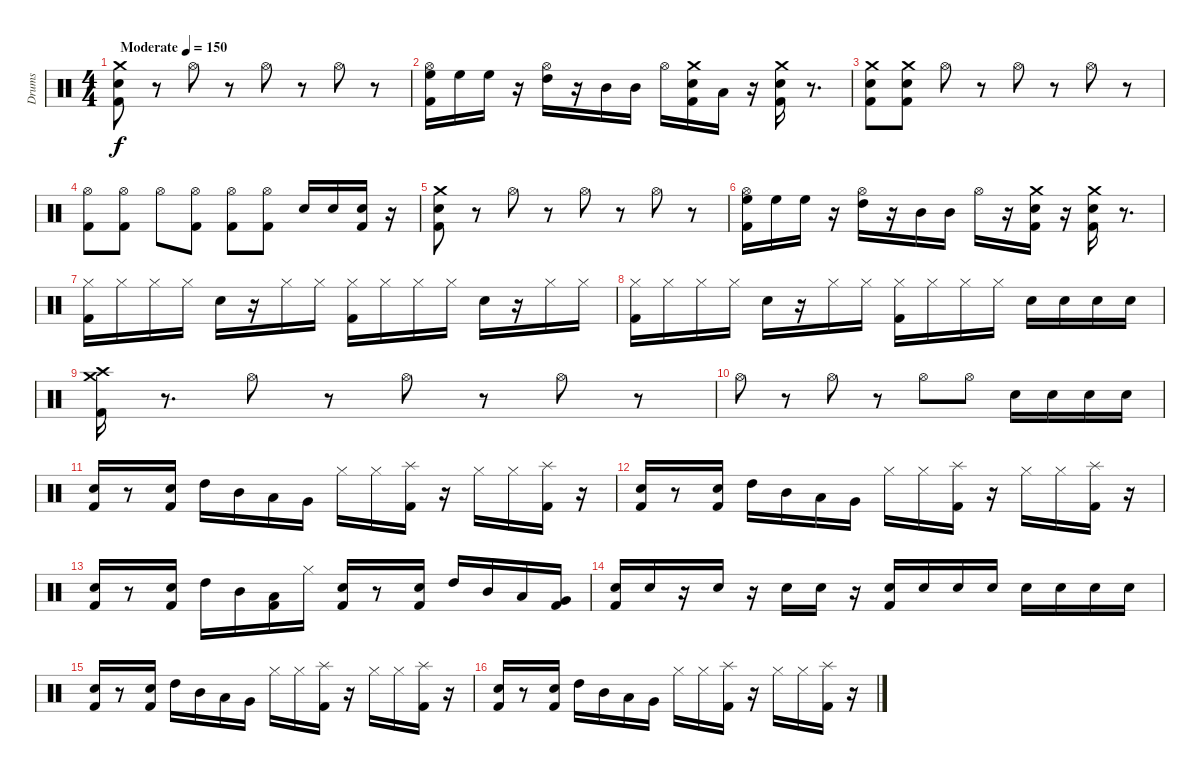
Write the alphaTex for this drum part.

\track ("Drums" "Drums") {instrument percussion}
\staff {score}
\articulation defaults
\ts (4 4)
\tempo (150 "Moderate")
\clef neutral
\ks c
("Crash medium (hit)" "Snare (hit) 2" "Kick (hit) 2").8{dy f} r.8 "Hi-Hat (open)".8 r.8 "Hi-Hat (open)".8 r.8 "Hi-Hat (open)".8 r.8 |
("Hi-Hat (open)" "High Floor Tom (hit)" "Kick (hit) 2").16 "High Floor Tom (hit)".16 "High Floor Tom (hit)".16 r.16 ("Hi-Hat (open)" "High Tom (hit)").16 r.16 "Mid Tom (hit)".16 "Mid Tom (hit)".16 "Hi-Hat (open)".16 ("Crash medium (hit)" "Snare (hit) 2" "Kick (hit) 2").16 "Low Tom (hit)".16 r.16 ("Crash medium (hit)" "Snare (hit) 2" "Kick (hit) 2").16 r.8{d} |
("Crash medium (hit)" "Snare (hit) 2" "Kick (hit) 2").8 ("Crash medium (hit)" "Snare (hit) 2" "Kick (hit) 2").8 "Hi-Hat (open)".8 r.8 "Hi-Hat (open)".8 r.8 "Hi-Hat (open)".8 r.8 |
("Hi-Hat (open)" "Kick (hit) 2").8 ("Hi-Hat (open)" "Kick (hit) 2").8 "Hi-Hat (open)".8 ("Hi-Hat (open)" "Kick (hit) 2").8 ("Hi-Hat (open)" "Kick (hit) 2").8 ("Hi-Hat (open)" "Kick (hit) 2").8 "Snare (hit) 2".16 "Snare (hit) 2".16 ("Snare (hit) 2" "Kick (hit) 2").16 r.16 |
("Crash medium (hit)" "Snare (hit) 2" "Kick (hit) 2").8 r.8 "Hi-Hat (open)".8 r.8 "Hi-Hat (open)".8 r.8 "Hi-Hat (open)".8 r.8 |
("Hi-Hat (open)" "High Floor Tom (hit)" "Kick (hit) 2").16 "High Floor Tom (hit)".16 "High Floor Tom (hit)".16 r.16 ("Hi-Hat (open)" "High Tom (hit)").16 r.16 "Mid Tom (hit)".16 "Mid Tom (hit)".16 "Hi-Hat (open)".16 r.16 ("Crash medium (hit)" "Snare (hit) 2" "Kick (hit) 2").16 r.16 ("Crash medium (hit)" "Snare (hit) 2" "Kick (hit) 2").16 r.8{d} |
("Hi-Hat (closed)" "Kick (hit) 2").16 "Hi-Hat (closed)".16 "Hi-Hat (closed)".16 "Hi-Hat (closed)".16 "Snare (hit) 2".16 r.16 "Hi-Hat (closed)".16 "Hi-Hat (closed)".16 ("Hi-Hat (closed)" "Kick (hit) 2").16 "Hi-Hat (closed)".16 "Hi-Hat (closed)".16 "Hi-Hat (closed)".16 "Snare (hit) 2".16 r.16 "Hi-Hat (closed)".16 "Hi-Hat (closed)".16 |
("Hi-Hat (closed)" "Kick (hit) 2").16 "Hi-Hat (closed)".16 "Hi-Hat (closed)".16 "Hi-Hat (closed)".16 "Snare (hit) 2".16 r.16 "Hi-Hat (closed)".16 "Hi-Hat (closed)".16 ("Hi-Hat (closed)" "Kick (hit) 2").16 "Hi-Hat (closed)".16 "Hi-Hat (closed)".16 "Hi-Hat (closed)".16 "Snare (hit) 2".16 "Snare (hit) 2".16 "Snare (hit) 2".16 "Snare (hit) 2".16 |
("Crash medium (hit)" "Crash high (hit)" "Kick (hit) 2").16 r.8{d} "Hi-Hat (open)".8 r.8 "Hi-Hat (open)".8 r.8 "Hi-Hat (open)".8 r.8 |
"Hi-Hat (open)".8 r.8 "Hi-Hat (open)".8 r.8 "Hi-Hat (open)".8 "Hi-Hat (open)".8 "Snare (hit) 2".16 "Snare (hit) 2".16 "Snare (hit) 2".16 "Snare (hit) 2".16 |
("Snare (hit) 2" "Kick (hit) 2").16 r.8 ("Snare (hit) 2" "Kick (hit) 2").16 "High Tom (hit)".16 "Mid Tom (hit)".16 "Low Tom (hit)".16 "Very Low Tom (hit)".16 "Hi-Hat (closed)".16 "Hi-Hat (closed)".16 ("Splash (hit)" "Kick (hit) 2").16 r.16 "Hi-Hat (closed)".16 "Hi-Hat (closed)".16 ("Splash (hit)" "Kick (hit) 2").16 r.16 |
("Snare (hit) 2" "Kick (hit) 2").16 r.8 ("Snare (hit) 2" "Kick (hit) 2").16 "High Tom (hit)".16 "Mid Tom (hit)".16 "Low Tom (hit)".16 "Very Low Tom (hit)".16 "Hi-Hat (closed)".16 "Hi-Hat (closed)".16 ("Splash (hit)" "Kick (hit) 2").16 r.16 "Hi-Hat (closed)".16 "Hi-Hat (closed)".16 ("Splash (hit)" "Kick (hit) 2").16 r.16 |
("Snare (hit) 2" "Kick (hit) 2").16 r.8 ("Snare (hit) 2" "Kick (hit) 2").16 "High Tom (hit)".16 "Mid Tom (hit)".16 ("Low Tom (hit)" "Kick (hit) 2").16 "Hi-Hat (closed)".16 ("Snare (hit) 2" "Kick (hit) 2").16 r.8 ("Snare (hit) 2" "Kick (hit) 2").16 "High Tom (hit)".16 "Mid Tom (hit)".16 "Low Tom (hit)".16 ("Very Low Tom (hit)" "Kick (hit) 2").16 |
("Snare (hit) 2" "Kick (hit) 2").16 "Snare (hit) 2".16 r.16 "Snare (hit) 2".16 r.16 "Snare (hit) 2".16 "Snare (hit) 2".16 r.16 ("Snare (hit) 2" "Kick (hit) 2").16 "Snare (hit) 2".16 "Snare (hit) 2".16 "Snare (hit) 2".16 "Snare (hit) 2".16 "Snare (hit) 2".16 "Snare (hit) 2".16 "Snare (hit) 2".16 |
("Snare (hit) 2" "Kick (hit) 2").16 r.8 ("Snare (hit) 2" "Kick (hit) 2").16 "High Tom (hit)".16 "Mid Tom (hit)".16 "Low Tom (hit)".16 "Very Low Tom (hit)".16 "Hi-Hat (closed)".16 "Hi-Hat (closed)".16 ("Splash (hit)" "Kick (hit) 2").16 r.16 "Hi-Hat (closed)".16 "Hi-Hat (closed)".16 ("Splash (hit)" "Kick (hit) 2").16 r.16 |
("Snare (hit) 2" "Kick (hit) 2").16 r.8 ("Snare (hit) 2" "Kick (hit) 2").16 "High Tom (hit)".16 "Mid Tom (hit)".16 "Low Tom (hit)".16 "Very Low Tom (hit)".16 "Hi-Hat (closed)".16 "Hi-Hat (closed)".16 ("Splash (hit)" "Kick (hit) 2").16 r.16 "Hi-Hat (closed)".16 "Hi-Hat (closed)".16 ("Splash (hit)" "Kick (hit) 2").16 r.16
